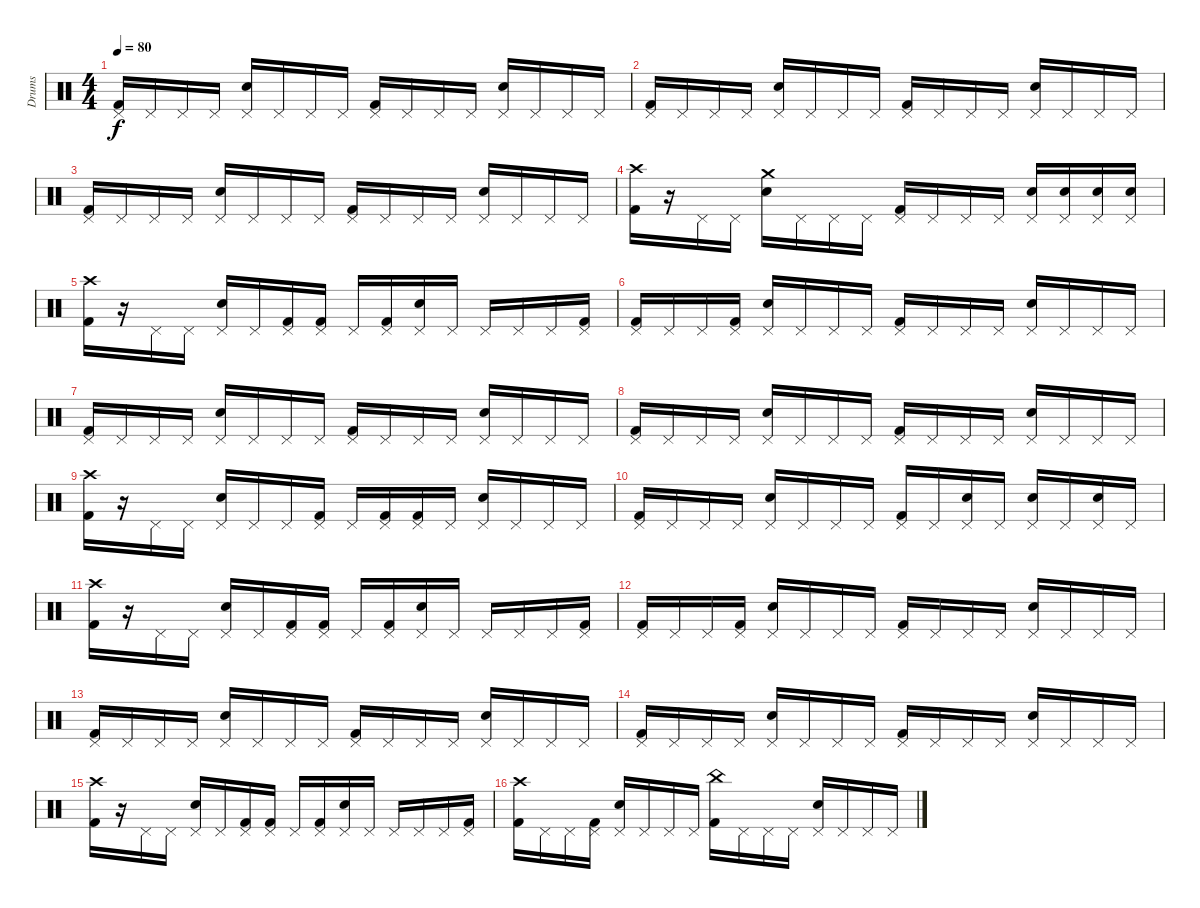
\track ("Drums" "Drums") {instrument percussion}
\staff {score}
\articulation defaults
\ts (4 4)
\tempo 80
\clef neutral
\ks c
("Pedal Hi-Hat (hit)" "Kick (hit) 2").16{dy f} "Pedal Hi-Hat (hit)".16 "Pedal Hi-Hat (hit)".16 "Pedal Hi-Hat (hit)".16 ("Pedal Hi-Hat (hit)" "Snare (hit) 2").16 "Pedal Hi-Hat (hit)".16 "Pedal Hi-Hat (hit)".16 "Pedal Hi-Hat (hit)".16 ("Pedal Hi-Hat (hit)" "Kick (hit) 2").16 "Pedal Hi-Hat (hit)".16 "Pedal Hi-Hat (hit)".16 "Pedal Hi-Hat (hit)".16 ("Pedal Hi-Hat (hit)" "Snare (hit) 2").16 "Pedal Hi-Hat (hit)".16 "Pedal Hi-Hat (hit)".16 "Pedal Hi-Hat (hit)".16 |
("Pedal Hi-Hat (hit)" "Kick (hit) 2").16 "Pedal Hi-Hat (hit)".16 "Pedal Hi-Hat (hit)".16 "Pedal Hi-Hat (hit)".16 ("Pedal Hi-Hat (hit)" "Snare (hit) 2").16 "Pedal Hi-Hat (hit)".16 "Pedal Hi-Hat (hit)".16 "Pedal Hi-Hat (hit)".16 ("Pedal Hi-Hat (hit)" "Kick (hit) 2").16 "Pedal Hi-Hat (hit)".16 "Pedal Hi-Hat (hit)".16 "Pedal Hi-Hat (hit)".16 ("Pedal Hi-Hat (hit)" "Snare (hit) 2").16 "Pedal Hi-Hat (hit)".16 "Pedal Hi-Hat (hit)".16 "Pedal Hi-Hat (hit)".16 |
("Pedal Hi-Hat (hit)" "Kick (hit) 2").16 "Pedal Hi-Hat (hit)".16 "Pedal Hi-Hat (hit)".16 "Pedal Hi-Hat (hit)".16 ("Pedal Hi-Hat (hit)" "Snare (hit) 2").16 "Pedal Hi-Hat (hit)".16 "Pedal Hi-Hat (hit)".16 "Pedal Hi-Hat (hit)".16 ("Pedal Hi-Hat (hit)" "Kick (hit) 2").16 "Pedal Hi-Hat (hit)".16 "Pedal Hi-Hat (hit)".16 "Pedal Hi-Hat (hit)".16 ("Pedal Hi-Hat (hit)" "Snare (hit) 2").16 "Pedal Hi-Hat (hit)".16 "Pedal Hi-Hat (hit)".16 "Pedal Hi-Hat (hit)".16 |
("Crash high (hit)" "Kick (hit) 2").16 r.16 "Pedal Hi-Hat (hit)".16 "Pedal Hi-Hat (hit)".16 ("Crash medium (hit)" "Snare (hit) 2").16 "Pedal Hi-Hat (hit)".16 "Pedal Hi-Hat (hit)".16 "Pedal Hi-Hat (hit)".16 ("Pedal Hi-Hat (hit)" "Kick (hit) 2").16 "Pedal Hi-Hat (hit)".16 "Pedal Hi-Hat (hit)".16 "Pedal Hi-Hat (hit)".16 ("Pedal Hi-Hat (hit)" "Snare (hit) 2").16 ("Pedal Hi-Hat (hit)" "Snare (hit) 2").16 ("Pedal Hi-Hat (hit)" "Snare (hit) 2").16 ("Pedal Hi-Hat (hit)" "Snare (hit) 2").16 |
("Crash high (hit)" "Kick (hit) 2").16 r.16 "Pedal Hi-Hat (hit)".16 "Pedal Hi-Hat (hit)".16 ("Pedal Hi-Hat (hit)" "Snare (hit) 2").16 "Pedal Hi-Hat (hit)".16 ("Pedal Hi-Hat (hit)" "Kick (hit) 2").16 ("Pedal Hi-Hat (hit)" "Kick (hit) 2").16 "Pedal Hi-Hat (hit)".16 ("Pedal Hi-Hat (hit)" "Kick (hit) 2").16 ("Pedal Hi-Hat (hit)" "Snare (hit) 2").16 "Pedal Hi-Hat (hit)".16 "Pedal Hi-Hat (hit)".16 "Pedal Hi-Hat (hit)".16 "Pedal Hi-Hat (hit)".16 ("Pedal Hi-Hat (hit)" "Kick (hit) 2").16 |
("Pedal Hi-Hat (hit)" "Kick (hit) 2").16 "Pedal Hi-Hat (hit)".16 "Pedal Hi-Hat (hit)".16 ("Pedal Hi-Hat (hit)" "Kick (hit) 2").16 ("Pedal Hi-Hat (hit)" "Snare (hit) 2").16 "Pedal Hi-Hat (hit)".16 "Pedal Hi-Hat (hit)".16 "Pedal Hi-Hat (hit)".16 ("Pedal Hi-Hat (hit)" "Kick (hit) 2").16 "Pedal Hi-Hat (hit)".16 "Pedal Hi-Hat (hit)".16 "Pedal Hi-Hat (hit)".16 ("Pedal Hi-Hat (hit)" "Snare (hit) 2").16 "Pedal Hi-Hat (hit)".16 "Pedal Hi-Hat (hit)".16 "Pedal Hi-Hat (hit)".16 |
("Pedal Hi-Hat (hit)" "Kick (hit) 2").16 "Pedal Hi-Hat (hit)".16 "Pedal Hi-Hat (hit)".16 "Pedal Hi-Hat (hit)".16 ("Pedal Hi-Hat (hit)" "Snare (hit) 2").16 "Pedal Hi-Hat (hit)".16 "Pedal Hi-Hat (hit)".16 "Pedal Hi-Hat (hit)".16 ("Pedal Hi-Hat (hit)" "Kick (hit) 2").16 "Pedal Hi-Hat (hit)".16 "Pedal Hi-Hat (hit)".16 "Pedal Hi-Hat (hit)".16 ("Pedal Hi-Hat (hit)" "Snare (hit) 2").16 "Pedal Hi-Hat (hit)".16 "Pedal Hi-Hat (hit)".16 "Pedal Hi-Hat (hit)".16 |
("Pedal Hi-Hat (hit)" "Kick (hit) 2").16 "Pedal Hi-Hat (hit)".16 "Pedal Hi-Hat (hit)".16 "Pedal Hi-Hat (hit)".16 ("Pedal Hi-Hat (hit)" "Snare (hit) 2").16 "Pedal Hi-Hat (hit)".16 "Pedal Hi-Hat (hit)".16 "Pedal Hi-Hat (hit)".16 ("Pedal Hi-Hat (hit)" "Kick (hit) 2").16 "Pedal Hi-Hat (hit)".16 "Pedal Hi-Hat (hit)".16 "Pedal Hi-Hat (hit)".16 ("Pedal Hi-Hat (hit)" "Snare (hit) 2").16 "Pedal Hi-Hat (hit)".16 "Pedal Hi-Hat (hit)".16 "Pedal Hi-Hat (hit)".16 |
("Crash high (hit)" "Kick (hit) 2").16 r.16 "Pedal Hi-Hat (hit)".16 "Pedal Hi-Hat (hit)".16 ("Pedal Hi-Hat (hit)" "Snare (hit) 2").16 "Pedal Hi-Hat (hit)".16 "Pedal Hi-Hat (hit)".16 ("Pedal Hi-Hat (hit)" "Kick (hit) 2").16 "Pedal Hi-Hat (hit)".16 ("Pedal Hi-Hat (hit)" "Kick (hit) 2").16 ("Pedal Hi-Hat (hit)" "Kick (hit) 2").16 "Pedal Hi-Hat (hit)".16 ("Pedal Hi-Hat (hit)" "Snare (hit) 2").16 "Pedal Hi-Hat (hit)".16 "Pedal Hi-Hat (hit)".16 "Pedal Hi-Hat (hit)".16 |
("Pedal Hi-Hat (hit)" "Kick (hit) 2").16 "Pedal Hi-Hat (hit)".16 "Pedal Hi-Hat (hit)".16 "Pedal Hi-Hat (hit)".16 ("Pedal Hi-Hat (hit)" "Snare (hit) 2").16 "Pedal Hi-Hat (hit)".16 "Pedal Hi-Hat (hit)".16 "Pedal Hi-Hat (hit)".16 ("Pedal Hi-Hat (hit)" "Kick (hit) 2").16 "Pedal Hi-Hat (hit)".16 ("Pedal Hi-Hat (hit)" "Snare (hit) 2").16 "Pedal Hi-Hat (hit)".16 ("Pedal Hi-Hat (hit)" "Snare (hit) 2").16 "Pedal Hi-Hat (hit)".16 ("Pedal Hi-Hat (hit)" "Snare (hit) 2").16 "Pedal Hi-Hat (hit)".16 |
("Crash high (hit)" "Kick (hit) 2").16 r.16 "Pedal Hi-Hat (hit)".16 "Pedal Hi-Hat (hit)".16 ("Pedal Hi-Hat (hit)" "Snare (hit) 2").16 "Pedal Hi-Hat (hit)".16 ("Pedal Hi-Hat (hit)" "Kick (hit) 2").16 ("Pedal Hi-Hat (hit)" "Kick (hit) 2").16 "Pedal Hi-Hat (hit)".16 ("Pedal Hi-Hat (hit)" "Kick (hit) 2").16 ("Pedal Hi-Hat (hit)" "Snare (hit) 2").16 "Pedal Hi-Hat (hit)".16 "Pedal Hi-Hat (hit)".16 "Pedal Hi-Hat (hit)".16 "Pedal Hi-Hat (hit)".16 ("Pedal Hi-Hat (hit)" "Kick (hit) 2").16 |
("Pedal Hi-Hat (hit)" "Kick (hit) 2").16 "Pedal Hi-Hat (hit)".16 "Pedal Hi-Hat (hit)".16 ("Pedal Hi-Hat (hit)" "Kick (hit) 2").16 ("Pedal Hi-Hat (hit)" "Snare (hit) 2").16 "Pedal Hi-Hat (hit)".16 "Pedal Hi-Hat (hit)".16 "Pedal Hi-Hat (hit)".16 ("Pedal Hi-Hat (hit)" "Kick (hit) 2").16 "Pedal Hi-Hat (hit)".16 "Pedal Hi-Hat (hit)".16 "Pedal Hi-Hat (hit)".16 ("Pedal Hi-Hat (hit)" "Snare (hit) 2").16 "Pedal Hi-Hat (hit)".16 "Pedal Hi-Hat (hit)".16 "Pedal Hi-Hat (hit)".16 |
("Pedal Hi-Hat (hit)" "Kick (hit) 2").16 "Pedal Hi-Hat (hit)".16 "Pedal Hi-Hat (hit)".16 "Pedal Hi-Hat (hit)".16 ("Pedal Hi-Hat (hit)" "Snare (hit) 2").16 "Pedal Hi-Hat (hit)".16 "Pedal Hi-Hat (hit)".16 "Pedal Hi-Hat (hit)".16 ("Pedal Hi-Hat (hit)" "Kick (hit) 2").16 "Pedal Hi-Hat (hit)".16 "Pedal Hi-Hat (hit)".16 "Pedal Hi-Hat (hit)".16 ("Pedal Hi-Hat (hit)" "Snare (hit) 2").16 "Pedal Hi-Hat (hit)".16 "Pedal Hi-Hat (hit)".16 "Pedal Hi-Hat (hit)".16 |
("Pedal Hi-Hat (hit)" "Kick (hit) 2").16 "Pedal Hi-Hat (hit)".16 "Pedal Hi-Hat (hit)".16 "Pedal Hi-Hat (hit)".16 ("Pedal Hi-Hat (hit)" "Snare (hit) 2").16 "Pedal Hi-Hat (hit)".16 "Pedal Hi-Hat (hit)".16 "Pedal Hi-Hat (hit)".16 ("Pedal Hi-Hat (hit)" "Kick (hit) 2").16 "Pedal Hi-Hat (hit)".16 "Pedal Hi-Hat (hit)".16 "Pedal Hi-Hat (hit)".16 ("Pedal Hi-Hat (hit)" "Snare (hit) 2").16 "Pedal Hi-Hat (hit)".16 "Pedal Hi-Hat (hit)".16 "Pedal Hi-Hat (hit)".16 |
("Crash high (hit)" "Kick (hit) 2").16 r.16 "Pedal Hi-Hat (hit)".16 "Pedal Hi-Hat (hit)".16 ("Pedal Hi-Hat (hit)" "Snare (hit) 2").16 "Pedal Hi-Hat (hit)".16 ("Pedal Hi-Hat (hit)" "Kick (hit) 2").16 ("Pedal Hi-Hat (hit)" "Kick (hit) 2").16 "Pedal Hi-Hat (hit)".16 ("Pedal Hi-Hat (hit)" "Kick (hit) 2").16 ("Pedal Hi-Hat (hit)" "Snare (hit) 2").16 "Pedal Hi-Hat (hit)".16 "Pedal Hi-Hat (hit)".16 "Pedal Hi-Hat (hit)".16 "Pedal Hi-Hat (hit)".16 ("Pedal Hi-Hat (hit)" "Kick (hit) 2").16 |
("Crash high (hit)" "Kick (hit) 2").16 "Pedal Hi-Hat (hit)".16 "Pedal Hi-Hat (hit)".16 ("Pedal Hi-Hat (hit)" "Kick (hit) 2").16 ("Pedal Hi-Hat (hit)" "Snare (hit) 2").16 "Pedal Hi-Hat (hit)".16 "Pedal Hi-Hat (hit)".16 "Pedal Hi-Hat (hit)".16 ("China (hit)" "Kick (hit) 2").16 "Pedal Hi-Hat (hit)".16 "Pedal Hi-Hat (hit)".16 "Pedal Hi-Hat (hit)".16 ("Pedal Hi-Hat (hit)" "Snare (hit) 2").16 "Pedal Hi-Hat (hit)".16 "Pedal Hi-Hat (hit)".16 "Pedal Hi-Hat (hit)".16
